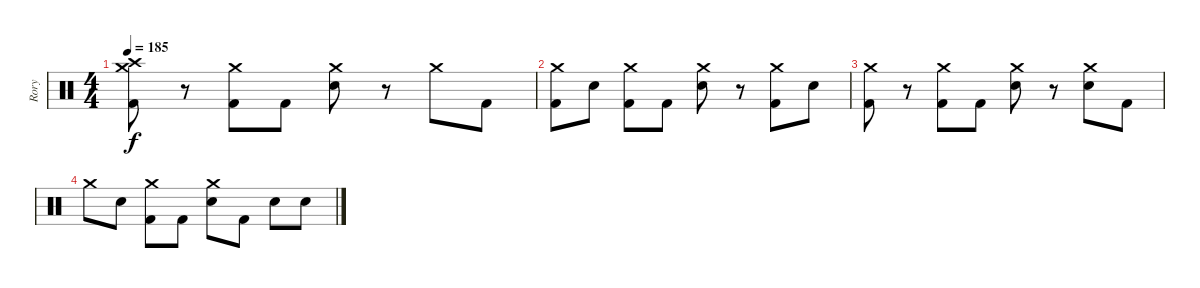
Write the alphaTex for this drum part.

\track ("Rory" "Rory") {instrument percussion}
\staff {score}
\articulation defaults
\ts (4 4)
\tempo 185
\clef neutral
\ks c
("Crash high (hit)" "Crash medium (hit)" "Kick (hit) 2").8{dy f} r.8 ("Crash medium (hit)" "Kick (hit) 2").8 "Kick (hit) 2".8 ("Crash medium (hit)" "Electric Snare (hit)").8 r.8 "Crash medium (hit)".8 "Kick (hit) 2".8 |
("Crash medium (hit)" "Kick (hit) 2").8 "Electric Snare (hit)".8 ("Crash medium (hit)" "Kick (hit) 2").8 "Kick (hit) 2".8 ("Crash medium (hit)" "Electric Snare (hit)").8 r.8 ("Crash medium (hit)" "Kick (hit) 2").8 "Electric Snare (hit)".8 |
("Crash medium (hit)" "Kick (hit) 2").8 r.8 ("Crash medium (hit)" "Kick (hit) 2").8 "Kick (hit) 2".8 ("Crash medium (hit)" "Electric Snare (hit)").8 r.8 ("Crash medium (hit)" "Electric Snare (hit)").8 "Kick (hit) 2".8 |
"Crash medium (hit)".8 "Electric Snare (hit)".8 ("Crash medium (hit)" "Kick (hit) 2").8 "Kick (hit) 2".8 ("Crash medium (hit)" "Electric Snare (hit)").8 "Kick (hit) 2".8 "Electric Snare (hit)".8 "Electric Snare (hit)".8
